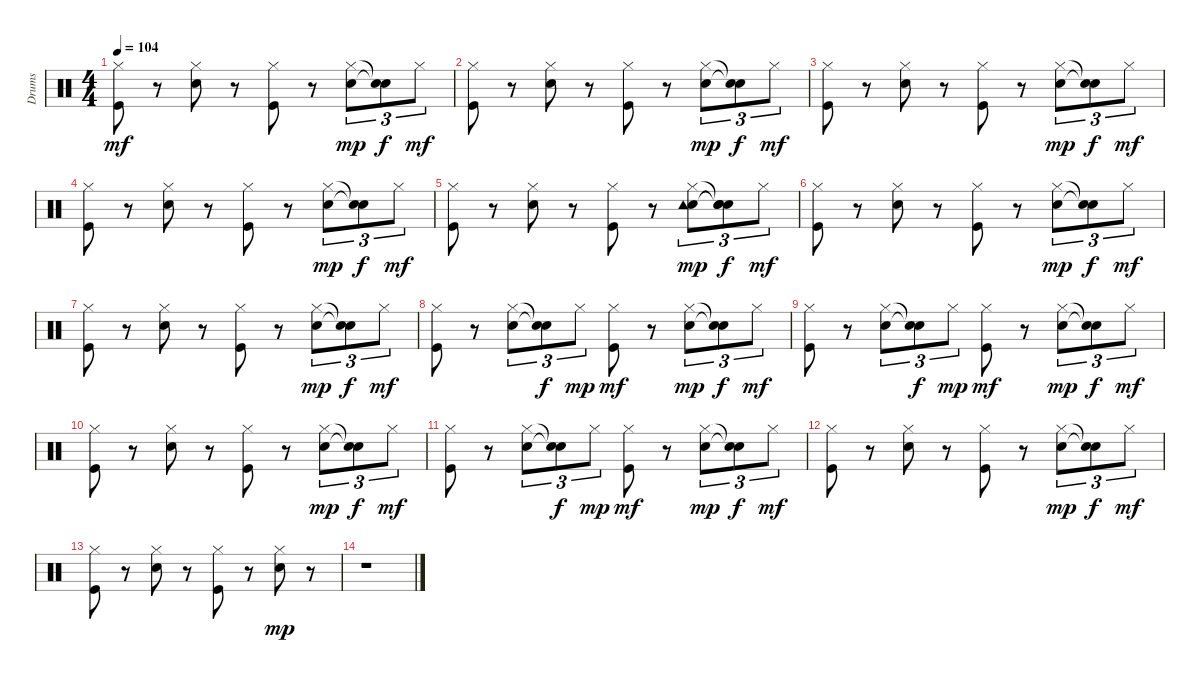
\track ("Drums   " "Drums   ") {instrument percussion}
\staff {score}
\articulation defaults
\ts (4 4)
\tempo 104
\clef neutral
\ks c
("Kick (hit)" "Hi-Hat (closed)").8{dy mf} r.8 ("Snare (hit) 2" "Hi-Hat (closed)").8 r.8 ("Kick (hit)" "Hi-Hat (closed)").8 r.8 ("Snare (hit) 2" "Hi-Hat (closed)").8{tu (3 2) dy mp} ("Snare (hit)"{t} "Snare (hit)"{t}).8{tu (3 2) dy f} "Hi-Hat (closed)".8{tu (3 2) dy mf} |
("Kick (hit)" "Hi-Hat (closed)").8 r.8 ("Snare (hit) 2" "Hi-Hat (closed)").8 r.8 ("Kick (hit)" "Hi-Hat (closed)").8 r.8 ("Snare (hit) 2" "Hi-Hat (closed)").8{tu (3 2) dy mp} ("Snare (hit)"{t} "Snare (hit)"{t}).8{tu (3 2) dy f} "Hi-Hat (closed)".8{tu (3 2) dy mf} |
("Kick (hit)" "Hi-Hat (closed)").8 r.8 ("Snare (hit) 2" "Hi-Hat (closed)").8 r.8 ("Kick (hit)" "Hi-Hat (closed)").8 r.8 ("Snare (hit) 2" "Hi-Hat (closed)").8{tu (3 2) dy mp} ("Snare (hit)"{t} "Snare (hit)"{t}).8{tu (3 2) dy f} "Hi-Hat (closed)".8{tu (3 2) dy mf} |
("Kick (hit)" "Hi-Hat (closed)").8 r.8 ("Snare (hit) 2" "Hi-Hat (closed)").8 r.8 ("Kick (hit)" "Hi-Hat (closed)").8 r.8 ("Snare (hit) 2" "Hi-Hat (closed)").8{tu (3 2) dy mp} ("Snare (hit)"{t} "Snare (hit)"{t}).8{tu (3 2) dy f} "Hi-Hat (closed)".8{tu (3 2) dy mf} |
("Kick (hit)" "Hi-Hat (closed)").8 r.8 ("Snare (hit) 2" "Hi-Hat (closed)").8 r.8 ("Kick (hit)" "Hi-Hat (closed)").8 r.8 ("Snare (hit) 2" "Hi-Hat (closed)" "Tambourine (hit)").8{tu (3 2) dy mp} ("Snare (hit)"{t} "Snare (hit)"{t} "Snare (hit)"{t}).8{tu (3 2) dy f} "Hi-Hat (closed)".8{tu (3 2) dy mf} |
("Kick (hit)" "Hi-Hat (closed)").8 r.8 ("Snare (hit) 2" "Hi-Hat (closed)").8 r.8 ("Kick (hit)" "Hi-Hat (closed)").8 r.8 ("Snare (hit) 2" "Hi-Hat (closed)").8{tu (3 2) dy mp} ("Snare (hit)"{t} "Snare (hit)"{t}).8{tu (3 2) dy f} "Hi-Hat (closed)".8{tu (3 2) dy mf} |
("Kick (hit)" "Hi-Hat (closed)").8 r.8 ("Snare (hit) 2" "Hi-Hat (closed)").8 r.8 ("Kick (hit)" "Hi-Hat (closed)").8 r.8 ("Snare (hit) 2" "Hi-Hat (closed)").8{tu (3 2) dy mp} ("Snare (hit)"{t} "Snare (hit)"{t}).8{tu (3 2) dy f} "Hi-Hat (closed)".8{tu (3 2) dy mf} |
("Kick (hit)" "Hi-Hat (closed)").8 r.8 ("Snare (hit) 2" "Hi-Hat (closed)").8{tu (3 2)} ("Snare (hit)"{t} "Snare (hit)"{t}).8{tu (3 2) dy f} "Hi-Hat (closed)".8{tu (3 2) dy mp} ("Kick (hit)" "Hi-Hat (closed)").8{dy mf} r.8 ("Snare (hit) 2" "Hi-Hat (closed)").8{tu (3 2) dy mp} ("Snare (hit)"{t} "Snare (hit)"{t}).8{tu (3 2) dy f} "Hi-Hat (closed)".8{tu (3 2) dy mf} |
("Kick (hit)" "Hi-Hat (closed)").8 r.8 ("Snare (hit) 2" "Hi-Hat (closed)").8{tu (3 2)} ("Snare (hit)"{t} "Snare (hit)"{t}).8{tu (3 2) dy f} "Hi-Hat (closed)".8{tu (3 2) dy mp} ("Kick (hit)" "Hi-Hat (closed)").8{dy mf} r.8 ("Snare (hit) 2" "Hi-Hat (closed)").8{tu (3 2) dy mp} ("Snare (hit)"{t} "Snare (hit)"{t}).8{tu (3 2) dy f} "Hi-Hat (closed)".8{tu (3 2) dy mf} |
("Kick (hit)" "Hi-Hat (closed)").8{volume 13} r.8 ("Snare (hit) 2" "Hi-Hat (closed)").8{volume 12} r.8 ("Kick (hit)" "Hi-Hat (closed)").8{volume 11} r.8 ("Snare (hit) 2" "Hi-Hat (closed)").8{tu (3 2) dy mp volume 11} ("Snare (hit)"{t} "Snare (hit)"{t}).8{tu (3 2) dy f} "Hi-Hat (closed)".8{tu (3 2) dy mf volume 10} |
("Kick (hit)" "Hi-Hat (closed)").8{volume 10} r.8 ("Snare (hit) 2" "Hi-Hat (closed)").8{tu (3 2) volume 9} ("Snare (hit)"{t} "Snare (hit)"{t}).8{tu (3 2) dy f} "Hi-Hat (closed)".8{tu (3 2) dy mp volume 8} ("Kick (hit)" "Hi-Hat (closed)").8{dy mf volume 8} r.8 ("Snare (hit) 2" "Hi-Hat (closed)").8{tu (3 2) dy mp volume 7} ("Snare (hit)"{t} "Snare (hit)"{t}).8{tu (3 2) dy f} "Hi-Hat (closed)".8{tu (3 2) dy mf volume 7} |
("Kick (hit)" "Hi-Hat (closed)").8{volume 6} r.8 ("Snare (hit) 2" "Hi-Hat (closed)").8{volume 6} r.8 ("Kick (hit)" "Hi-Hat (closed)").8{volume 5} r.8 ("Snare (hit) 2" "Hi-Hat (closed)").8{tu (3 2) dy mp volume 4} ("Snare (hit)"{t} "Snare (hit)"{t}).8{tu (3 2) dy f} "Hi-Hat (closed)".8{tu (3 2) dy mf volume 4} |
("Kick (hit)" "Hi-Hat (closed)").8{volume 3} r.8 ("Snare (hit) 2" "Hi-Hat (closed)").8{volume 2} r.8 ("Kick (hit)" "Hi-Hat (closed)").8{volume 2} r.8 ("Snare (hit) 2" "Hi-Hat (closed)").8{dy mp volume 1} r.8 |
r.1
